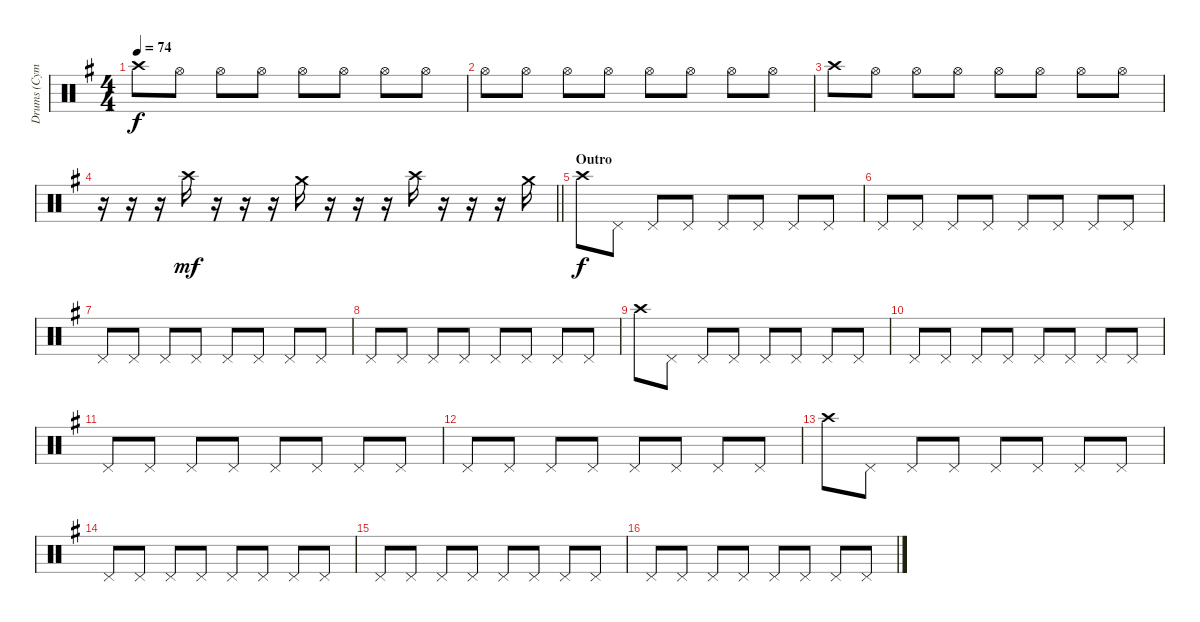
\track ("Drums (Cymbals)" "Drums (Cym") {instrument percussion}
\staff {score}
\articulation defaults
\ts (4 4)
\tempo 74
\clef neutral
\ks g "Crash high (hit)".8{dy f} "Hi-Hat (open)".8 "Hi-Hat (open)".8 "Hi-Hat (open)".8 "Hi-Hat (open)".8 "Hi-Hat (open)".8 "Hi-Hat (open)".8 "Hi-Hat (open)".8
|
"Hi-Hat (open)".8 "Hi-Hat (open)".8 "Hi-Hat (open)".8 "Hi-Hat (open)".8 "Hi-Hat (open)".8 "Hi-Hat (open)".8 "Hi-Hat (open)".8 "Hi-Hat (open)".8 |
"Crash high (hit)".8 "Hi-Hat (open)".8 "Hi-Hat (open)".8 "Hi-Hat (open)".8 "Hi-Hat (open)".8 "Hi-Hat (open)".8 "Hi-Hat (open)".8 "Hi-Hat (open)".8 |
\barLineRight lightlight
r.16 r.16 r.16 "Crash high (hit)".16{dy mf} r.16 r.16 r.16 "Crash medium (hit)".16 r.16 r.16 r.16 "Crash high (hit)".16 r.16 r.16 r.16 "Crash medium (hit)".16 |
\section ("" "Outro")
"Crash high (hit)".8{dy f} "Pedal Hi-Hat (hit)".8 "Pedal Hi-Hat (hit)".8 "Pedal Hi-Hat (hit)".8 "Pedal Hi-Hat (hit)".8 "Pedal Hi-Hat (hit)".8 "Pedal Hi-Hat (hit)".8 "Pedal Hi-Hat (hit)".8 |
"Pedal Hi-Hat (hit)".8 "Pedal Hi-Hat (hit)".8 "Pedal Hi-Hat (hit)".8 "Pedal Hi-Hat (hit)".8 "Pedal Hi-Hat (hit)".8 "Pedal Hi-Hat (hit)".8 "Pedal Hi-Hat (hit)".8 "Pedal Hi-Hat (hit)".8 |
"Pedal Hi-Hat (hit)".8 "Pedal Hi-Hat (hit)".8 "Pedal Hi-Hat (hit)".8 "Pedal Hi-Hat (hit)".8 "Pedal Hi-Hat (hit)".8 "Pedal Hi-Hat (hit)".8 "Pedal Hi-Hat (hit)".8 "Pedal Hi-Hat (hit)".8 |
"Pedal Hi-Hat (hit)".8 "Pedal Hi-Hat (hit)".8 "Pedal Hi-Hat (hit)".8 "Pedal Hi-Hat (hit)".8 "Pedal Hi-Hat (hit)".8 "Pedal Hi-Hat (hit)".8 "Pedal Hi-Hat (hit)".8 "Pedal Hi-Hat (hit)".8 |
"Crash high (hit)".8 "Pedal Hi-Hat (hit)".8 "Pedal Hi-Hat (hit)".8 "Pedal Hi-Hat (hit)".8 "Pedal Hi-Hat (hit)".8 "Pedal Hi-Hat (hit)".8 "Pedal Hi-Hat (hit)".8 "Pedal Hi-Hat (hit)".8 |
"Pedal Hi-Hat (hit)".8 "Pedal Hi-Hat (hit)".8 "Pedal Hi-Hat (hit)".8 "Pedal Hi-Hat (hit)".8 "Pedal Hi-Hat (hit)".8 "Pedal Hi-Hat (hit)".8 "Pedal Hi-Hat (hit)".8 "Pedal Hi-Hat (hit)".8 |
"Pedal Hi-Hat (hit)".8 "Pedal Hi-Hat (hit)".8 "Pedal Hi-Hat (hit)".8 "Pedal Hi-Hat (hit)".8 "Pedal Hi-Hat (hit)".8 "Pedal Hi-Hat (hit)".8 "Pedal Hi-Hat (hit)".8 "Pedal Hi-Hat (hit)".8 |
"Pedal Hi-Hat (hit)".8 "Pedal Hi-Hat (hit)".8 "Pedal Hi-Hat (hit)".8 "Pedal Hi-Hat (hit)".8 "Pedal Hi-Hat (hit)".8 "Pedal Hi-Hat (hit)".8 "Pedal Hi-Hat (hit)".8 "Pedal Hi-Hat (hit)".8 |
"Crash high (hit)".8 "Pedal Hi-Hat (hit)".8 "Pedal Hi-Hat (hit)".8 "Pedal Hi-Hat (hit)".8 "Pedal Hi-Hat (hit)".8 "Pedal Hi-Hat (hit)".8 "Pedal Hi-Hat (hit)".8 "Pedal Hi-Hat (hit)".8 |
"Pedal Hi-Hat (hit)".8 "Pedal Hi-Hat (hit)".8 "Pedal Hi-Hat (hit)".8 "Pedal Hi-Hat (hit)".8 "Pedal Hi-Hat (hit)".8 "Pedal Hi-Hat (hit)".8 "Pedal Hi-Hat (hit)".8 "Pedal Hi-Hat (hit)".8 |
"Pedal Hi-Hat (hit)".8 "Pedal Hi-Hat (hit)".8 "Pedal Hi-Hat (hit)".8 "Pedal Hi-Hat (hit)".8 "Pedal Hi-Hat (hit)".8 "Pedal Hi-Hat (hit)".8 "Pedal Hi-Hat (hit)".8 "Pedal Hi-Hat (hit)".8 |
"Pedal Hi-Hat (hit)".8 "Pedal Hi-Hat (hit)".8 "Pedal Hi-Hat (hit)".8 "Pedal Hi-Hat (hit)".8 "Pedal Hi-Hat (hit)".8 "Pedal Hi-Hat (hit)".8 "Pedal Hi-Hat (hit)".8 "Pedal Hi-Hat (hit)".8
